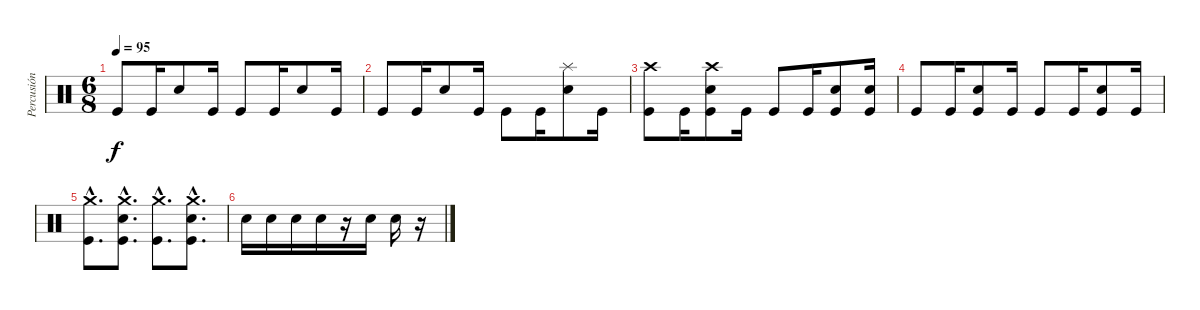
\track ("Percusión" "Percusión") {instrument percussion}
\staff {score}
\articulation defaults
\ts (6 8)
\tempo 95
\clef neutral
\ks c "Kick (hit)".8{dy f} "Kick (hit)".16 "Electric Snare (hit)".8 "Kick (hit)".16 "Kick (hit)".8 "Kick (hit)".16 "Electric Snare (hit)".8 "Kick (hit)".16
|
"Kick (hit)".8 "Kick (hit)".16 "Electric Snare (hit)".8 "Kick (hit)".16 "Kick (hit)".8 "Kick (hit)".16 ("Splash (hit)" "Electric Snare (hit)").8 "Kick (hit)".16 |
("Crash high (hit)" "Kick (hit)").8 "Kick (hit)".16 ("Crash high (hit)" "Electric Snare (hit)" "Kick (hit)").8 "Kick (hit)".16 "Kick (hit)".8 "Kick (hit)".16 ("Electric Snare (hit)" "Kick (hit)").8 ("Electric Snare (hit)" "Kick (hit)").16 |
"Kick (hit)".8 "Kick (hit)".16 ("Electric Snare (hit)" "Kick (hit)").8 "Kick (hit)".16 "Kick (hit)".8 "Kick (hit)".16 ("Electric Snare (hit)" "Kick (hit)").8 "Kick (hit)".16 |
("Crash medium (hit)"{hac} "Kick (hit)"{hac}).8{d} ("Crash medium (hit)"{hac} "Electric Snare (hit)"{hac} "Kick (hit)"{hac}).8{d} ("Crash medium (hit)"{hac} "Kick (hit)"{hac}).8{d} ("Crash medium (hit)"{hac} "Electric Snare (hit)"{hac} "Kick (hit)"{hac}).8{d} |
"Electric Snare (hit)".16 "Electric Snare (hit)".16 "Electric Snare (hit)".16 "Electric Snare (hit)".16 r.16 "Electric Snare (hit)".16 "Electric Snare (hit)".16 r.16
